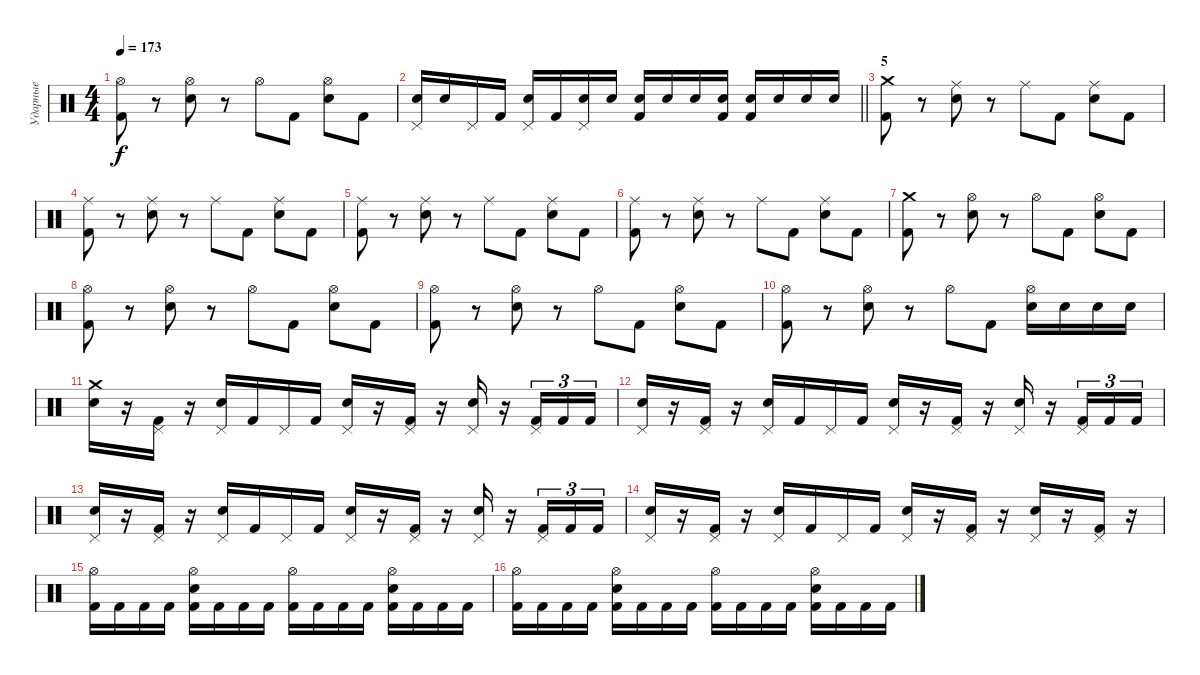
\track ("Ударные" "Ударные") {instrument percussion}
\staff {score}
\articulation defaults
\ts (4 4)
\tempo 173
\clef neutral
\ks c
("Hi-Hat (open)" "Kick (hit) 2").8{dy f} r.8 ("Hi-Hat (open)" "Snare (hit) 2").8 r.8 "Hi-Hat (open)".8 "Kick (hit) 2".8 ("Hi-Hat (open)" "Snare (hit) 2").8 "Kick (hit) 2".8 |
\barLineRight lightlight
("Pedal Hi-Hat (hit)" "Snare (hit) 2").16 "Snare (hit) 2".16 "Pedal Hi-Hat (hit)".16 "Kick (hit) 2".16 ("Pedal Hi-Hat (hit)" "Snare (hit) 2").16 "Kick (hit) 2".16 ("Pedal Hi-Hat (hit)" "Snare (hit) 2").16 "Snare (hit) 2".16 ("Snare (hit) 2" "Kick (hit) 2").16 "Snare (hit) 2".16 "Snare (hit) 2".16 ("Snare (hit) 2" "Kick (hit) 2").16 ("Snare (hit) 2" "Kick (hit) 2").16 "Snare (hit) 2".16 "Snare (hit) 2".16 "Snare (hit) 2".16 |
\section ("" "5")
("Crash medium (hit)" "Kick (hit) 2").8 r.8 ("Ride (middle)" "Snare (hit) 2").8 r.8 "Ride (middle)".8 "Kick (hit) 2".8 ("Ride (middle)" "Snare (hit) 2").8 "Kick (hit) 2".8 |
("Ride (middle)" "Kick (hit) 2").8 r.8 ("Ride (middle)" "Snare (hit) 2").8 r.8 "Ride (middle)".8 "Kick (hit) 2".8 ("Ride (middle)" "Snare (hit) 2").8 "Kick (hit) 2".8 |
("Ride (middle)" "Kick (hit) 2").8 r.8 ("Ride (middle)" "Snare (hit) 2").8 r.8 "Ride (middle)".8 "Kick (hit) 2".8 ("Ride (middle)" "Snare (hit) 2").8 "Kick (hit) 2".8 |
("Ride (middle)" "Kick (hit) 2").8 r.8 ("Ride (middle)" "Snare (hit) 2").8 r.8 "Ride (middle)".8 "Kick (hit) 2".8 ("Ride (middle)" "Snare (hit) 2").8 "Kick (hit) 2".8 |
("Crash medium (hit)" "Kick (hit) 2").8 r.8 ("Hi-Hat (open)" "Snare (hit) 2").8 r.8 "Hi-Hat (open)".8 "Kick (hit) 2".8 ("Hi-Hat (open)" "Snare (hit) 2").8 "Kick (hit) 2".8 |
("Hi-Hat (open)" "Kick (hit) 2").8 r.8 ("Hi-Hat (open)" "Snare (hit) 2").8 r.8 "Hi-Hat (open)".8 "Kick (hit) 2".8 ("Hi-Hat (open)" "Snare (hit) 2").8 "Kick (hit) 2".8 |
("Hi-Hat (open)" "Kick (hit) 2").8 r.8 ("Hi-Hat (open)" "Snare (hit) 2").8 r.8 "Hi-Hat (open)".8 "Kick (hit) 2".8 ("Hi-Hat (open)" "Snare (hit) 2").8 "Kick (hit) 2".8 |
("Hi-Hat (open)" "Kick (hit) 2").8 r.8 ("Hi-Hat (open)" "Snare (hit) 2").8 r.8 "Hi-Hat (open)".8 "Kick (hit) 2".8 ("Hi-Hat (open)" "Snare (hit) 2").16 "Snare (hit) 2".16 "Snare (hit) 2".16 "Snare (hit) 2".16 |
("Crash medium (hit)" "Snare (hit) 2").16 r.16 ("Pedal Hi-Hat (hit)" "Kick (hit) 2").16 r.16 ("Pedal Hi-Hat (hit)" "Snare (hit) 2").16 "Kick (hit) 2".16 "Pedal Hi-Hat (hit)".16 "Kick (hit) 2".16 ("Pedal Hi-Hat (hit)" "Snare (hit) 2").16 r.16 ("Pedal Hi-Hat (hit)" "Kick (hit) 2").16 r.16 ("Pedal Hi-Hat (hit)" "Snare (hit) 2").16 r.16 ("Pedal Hi-Hat (hit)" "Kick (hit) 2").16{tu (3 2)} "Kick (hit) 2".16{tu (3 2)} "Kick (hit) 2".16{tu (3 2)} |
("Pedal Hi-Hat (hit)" "Snare (hit) 2").16 r.16 ("Pedal Hi-Hat (hit)" "Kick (hit) 2").16 r.16 ("Pedal Hi-Hat (hit)" "Snare (hit) 2").16 "Kick (hit) 2".16 "Pedal Hi-Hat (hit)".16 "Kick (hit) 2".16 ("Pedal Hi-Hat (hit)" "Snare (hit) 2").16 r.16 ("Pedal Hi-Hat (hit)" "Kick (hit) 2").16 r.16 ("Pedal Hi-Hat (hit)" "Snare (hit) 2").16 r.16 ("Pedal Hi-Hat (hit)" "Kick (hit) 2").16{tu (3 2)} "Kick (hit) 2".16{tu (3 2)} "Kick (hit) 2".16{tu (3 2)} |
("Pedal Hi-Hat (hit)" "Snare (hit) 2").16 r.16 ("Pedal Hi-Hat (hit)" "Kick (hit) 2").16 r.16 ("Pedal Hi-Hat (hit)" "Snare (hit) 2").16 "Kick (hit) 2".16 "Pedal Hi-Hat (hit)".16 "Kick (hit) 2".16 ("Pedal Hi-Hat (hit)" "Snare (hit) 2").16 r.16 ("Pedal Hi-Hat (hit)" "Kick (hit) 2").16 r.16 ("Pedal Hi-Hat (hit)" "Snare (hit) 2").16 r.16 ("Pedal Hi-Hat (hit)" "Kick (hit) 2").16{tu (3 2)} "Kick (hit) 2".16{tu (3 2)} "Kick (hit) 2".16{tu (3 2)} |
("Pedal Hi-Hat (hit)" "Snare (hit) 2").16 r.16 ("Pedal Hi-Hat (hit)" "Kick (hit) 2").16 r.16 ("Pedal Hi-Hat (hit)" "Snare (hit) 2").16 "Kick (hit) 2".16 "Pedal Hi-Hat (hit)".16 "Kick (hit) 2".16 ("Pedal Hi-Hat (hit)" "Snare (hit) 2").16 r.16 ("Pedal Hi-Hat (hit)" "Kick (hit) 2").16 r.16 ("Pedal Hi-Hat (hit)" "Snare (hit) 2").16 r.16 ("Pedal Hi-Hat (hit)" "Kick (hit) 2").16 r.16 |
("Hi-Hat (open)" "Kick (hit) 2").16 "Kick (hit) 2".16 "Kick (hit) 2".16 "Kick (hit) 2".16 ("Hi-Hat (open)" "Snare (hit) 2" "Kick (hit) 2").16 "Kick (hit) 2".16 "Kick (hit) 2".16 "Kick (hit) 2".16 ("Hi-Hat (open)" "Kick (hit) 2").16 "Kick (hit) 2".16 "Kick (hit) 2".16 "Kick (hit) 2".16 ("Hi-Hat (open)" "Snare (hit) 2" "Kick (hit) 2").16 "Kick (hit) 2".16 "Kick (hit) 2".16 "Kick (hit) 2".16 |
("Hi-Hat (open)" "Kick (hit) 2").16 "Kick (hit) 2".16 "Kick (hit) 2".16 "Kick (hit) 2".16 ("Hi-Hat (open)" "Snare (hit) 2" "Kick (hit) 2").16 "Kick (hit) 2".16 "Kick (hit) 2".16 "Kick (hit) 2".16 ("Hi-Hat (open)" "Kick (hit) 2").16 "Kick (hit) 2".16 "Kick (hit) 2".16 "Kick (hit) 2".16 ("Hi-Hat (open)" "Snare (hit) 2" "Kick (hit) 2").16 "Kick (hit) 2".16 "Kick (hit) 2".16 "Kick (hit) 2".16
